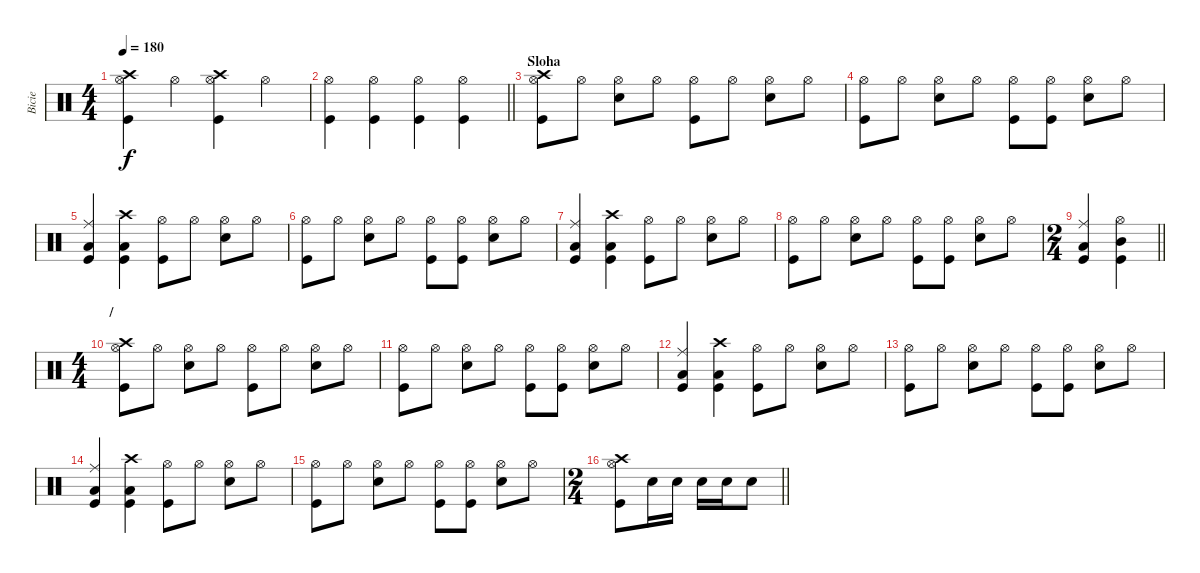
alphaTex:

\track ("Bicie" "Bicie") {instrument percussion}
\staff {score}
\articulation defaults
\ts (4 4)
\tempo 180
\clef neutral
\ks c
("Crash high (hit)" "Hi-Hat (open)" "Kick (hit)").4{dy f} "Hi-Hat (open)".4 ("Crash high (hit)" "Hi-Hat (open)" "Kick (hit)").4 "Hi-Hat (open)".4 |
\barLineRight lightlight
("Hi-Hat (open)" "Kick (hit)").4 ("Hi-Hat (open)" "Kick (hit)").4 ("Hi-Hat (open)" "Kick (hit)").4 ("Hi-Hat (open)" "Kick (hit)").4 |
\section ("" "Sloha")
("Crash high (hit)" "Hi-Hat (open)" "Kick (hit)").8 "Hi-Hat (open)".8 ("Hi-Hat (open)" "Snare (hit) 2").8 "Hi-Hat (open)".8 ("Hi-Hat (open)" "Kick (hit)").8 "Hi-Hat (open)".8 ("Hi-Hat (open)" "Snare (hit) 2").8 "Hi-Hat (open)".8 |
("Hi-Hat (open)" "Kick (hit)").8 "Hi-Hat (open)".8 ("Hi-Hat (open)" "Snare (hit) 2").8 "Hi-Hat (open)".8 ("Hi-Hat (open)" "Kick (hit)").8 ("Hi-Hat (open)" "Kick (hit)").8 ("Hi-Hat (open)" "Snare (hit) 2").8 "Hi-Hat (open)".8 |
("Ride (middle)" "Low Tom (hit)" "Kick (hit)").4 ("Crash high (hit)" "Low Floor Tom (hit)" "Kick (hit)").4 ("Hi-Hat (open)" "Kick (hit)").8 "Hi-Hat (open)".8 ("Hi-Hat (open)" "Snare (hit) 2").8 "Hi-Hat (open)".8 |
("Hi-Hat (open)" "Kick (hit)").8 "Hi-Hat (open)".8 ("Hi-Hat (open)" "Snare (hit) 2").8 "Hi-Hat (open)".8 ("Hi-Hat (open)" "Kick (hit)").8 ("Hi-Hat (open)" "Kick (hit)").8 ("Hi-Hat (open)" "Snare (hit) 2").8 "Hi-Hat (open)".8 |
("Ride (middle)" "Low Tom (hit)" "Kick (hit)").4 ("Crash high (hit)" "Low Floor Tom (hit)" "Kick (hit)").4 ("Hi-Hat (open)" "Kick (hit)").8 "Hi-Hat (open)".8 ("Hi-Hat (open)" "Snare (hit) 2").8 "Hi-Hat (open)".8 |
("Hi-Hat (open)" "Kick (hit)").8 "Hi-Hat (open)".8 ("Hi-Hat (open)" "Snare (hit) 2").8 "Hi-Hat (open)".8 ("Hi-Hat (open)" "Kick (hit)").8 ("Hi-Hat (open)" "Kick (hit)").8 ("Hi-Hat (open)" "Snare (hit) 2").8 "Hi-Hat (open)".8 |
\ts (2 4)
\barLineRight lightlight
("Ride (middle)" "Low Tom (hit)" "Kick (hit)").4 ("Hi-Hat (open)" "Mid Tom (hit)" "Kick (hit)").4 |
\ts (4 4)
\section ("" "/")
("Crash high (hit)" "Hi-Hat (open)" "Kick (hit)").8 "Hi-Hat (open)".8 ("Hi-Hat (open)" "Snare (hit) 2").8 "Hi-Hat (open)".8 ("Hi-Hat (open)" "Kick (hit)").8 "Hi-Hat (open)".8 ("Hi-Hat (open)" "Snare (hit) 2").8 "Hi-Hat (open)".8 |
("Hi-Hat (open)" "Kick (hit)").8 "Hi-Hat (open)".8 ("Hi-Hat (open)" "Snare (hit) 2").8 "Hi-Hat (open)".8 ("Hi-Hat (open)" "Kick (hit)").8 ("Hi-Hat (open)" "Kick (hit)").8 ("Hi-Hat (open)" "Snare (hit) 2").8 "Hi-Hat (open)".8 |
("Ride (middle)" "Low Tom (hit)" "Kick (hit)").4 ("Crash high (hit)" "Low Floor Tom (hit)" "Kick (hit)").4 ("Hi-Hat (open)" "Kick (hit)").8 "Hi-Hat (open)".8 ("Hi-Hat (open)" "Snare (hit) 2").8 "Hi-Hat (open)".8 |
("Hi-Hat (open)" "Kick (hit)").8 "Hi-Hat (open)".8 ("Hi-Hat (open)" "Snare (hit) 2").8 "Hi-Hat (open)".8 ("Hi-Hat (open)" "Kick (hit)").8 ("Hi-Hat (open)" "Kick (hit)").8 ("Hi-Hat (open)" "Snare (hit) 2").8 "Hi-Hat (open)".8 |
("Ride (middle)" "Low Tom (hit)" "Kick (hit)").4 ("Crash high (hit)" "Low Floor Tom (hit)" "Kick (hit)").4 ("Hi-Hat (open)" "Kick (hit)").8 "Hi-Hat (open)".8 ("Hi-Hat (open)" "Snare (hit) 2").8 "Hi-Hat (open)".8 |
("Hi-Hat (open)" "Kick (hit)").8 "Hi-Hat (open)".8 ("Hi-Hat (open)" "Snare (hit) 2").8 "Hi-Hat (open)".8 ("Hi-Hat (open)" "Kick (hit)").8 ("Hi-Hat (open)" "Kick (hit)").8 ("Hi-Hat (open)" "Snare (hit) 2").8 "Hi-Hat (open)".8 |
\ts (2 4)
\barLineRight lightlight
("Crash high (hit)" "Hi-Hat (open)" "Kick (hit)").8 "Snare (hit) 2".16 "Snare (hit) 2".16 "Snare (hit) 2".16 "Snare (hit) 2".16 "Snare (hit) 2".8
